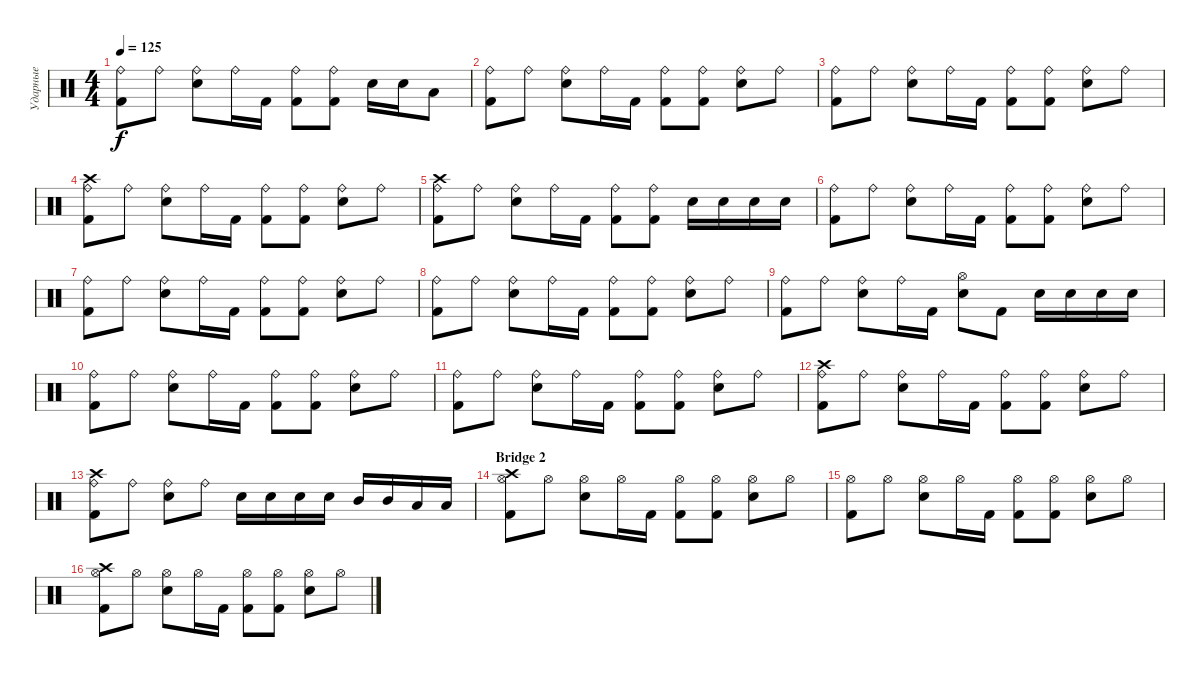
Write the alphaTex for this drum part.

\track ("Ударные" "Ударные") {instrument percussion}
\staff {score}
\articulation defaults
\ts (4 4)
\tempo 125
\clef neutral
\ks c
("Ride (bell)" "Kick (hit) 2").8{dy f} "Ride (bell)".8 ("Ride (bell)" "Snare (hit) 2").8 "Ride (bell)".16 "Kick (hit) 2".16 ("Ride (bell)" "Kick (hit) 2").8 ("Ride (bell)" "Kick (hit) 2").8 "Snare (hit) 2".16 "Snare (hit) 2".16 "Low Tom (hit)".8 |
("Ride (bell)" "Kick (hit) 2").8 "Ride (bell)".8 ("Ride (bell)" "Snare (hit) 2").8 "Ride (bell)".16 "Kick (hit) 2".16 ("Ride (bell)" "Kick (hit) 2").8 ("Ride (bell)" "Kick (hit) 2").8 ("Ride (bell)" "Snare (hit) 2").8 "Ride (bell)".8 |
("Ride (bell)" "Kick (hit) 2").8 "Ride (bell)".8 ("Ride (bell)" "Snare (hit) 2").8 "Ride (bell)".16 "Kick (hit) 2".16 ("Ride (bell)" "Kick (hit) 2").8 ("Ride (bell)" "Kick (hit) 2").8 ("Ride (bell)" "Snare (hit) 2").8 "Ride (bell)".8 |
("Ride (bell)" "Crash high (hit)" "Kick (hit) 2").8 "Ride (bell)".8 ("Ride (bell)" "Snare (hit) 2").8 "Ride (bell)".16 "Kick (hit) 2".16 ("Ride (bell)" "Kick (hit) 2").8 ("Ride (bell)" "Kick (hit) 2").8 ("Ride (bell)" "Snare (hit) 2").8 "Ride (bell)".8 |
("Ride (bell)" "Crash high (hit)" "Kick (hit) 2").8 "Ride (bell)".8 ("Ride (bell)" "Snare (hit) 2").8 "Ride (bell)".16 "Kick (hit) 2".16 ("Ride (bell)" "Kick (hit) 2").8 ("Ride (bell)" "Kick (hit) 2").8 "Snare (hit) 2".16 "Snare (hit) 2".16 "Snare (hit) 2".16 "Snare (hit) 2".16 |
("Ride (bell)" "Kick (hit) 2").8 "Ride (bell)".8 ("Ride (bell)" "Snare (hit) 2").8 "Ride (bell)".16 "Kick (hit) 2".16 ("Ride (bell)" "Kick (hit) 2").8 ("Ride (bell)" "Kick (hit) 2").8 ("Ride (bell)" "Snare (hit) 2").8 "Ride (bell)".8 |
("Ride (bell)" "Kick (hit) 2").8 "Ride (bell)".8 ("Ride (bell)" "Snare (hit) 2").8 "Ride (bell)".16 "Kick (hit) 2".16 ("Ride (bell)" "Kick (hit) 2").8 ("Ride (bell)" "Kick (hit) 2").8 ("Ride (bell)" "Snare (hit) 2").8 "Ride (bell)".8 |
("Ride (bell)" "Kick (hit) 2").8 "Ride (bell)".8 ("Ride (bell)" "Snare (hit) 2").8 "Ride (bell)".16 "Kick (hit) 2".16 ("Ride (bell)" "Kick (hit) 2").8 ("Ride (bell)" "Kick (hit) 2").8 ("Ride (bell)" "Snare (hit) 2").8 "Ride (bell)".8 |
("Ride (bell)" "Kick (hit) 2").8 "Ride (bell)".8 ("Ride (bell)" "Snare (hit) 2").8 "Ride (bell)".16 "Kick (hit) 2".16 ("Hi-Hat (open)" "Snare (hit) 2").8 "Kick (hit) 2".8 "Snare (hit) 2".16 "Snare (hit) 2".16 "Snare (hit) 2".16 "Snare (hit) 2".16 |
("Ride (bell)" "Kick (hit) 2").8 "Ride (bell)".8 ("Ride (bell)" "Snare (hit) 2").8 "Ride (bell)".16 "Kick (hit) 2".16 ("Ride (bell)" "Kick (hit) 2").8 ("Ride (bell)" "Kick (hit) 2").8 ("Ride (bell)" "Snare (hit) 2").8 "Ride (bell)".8 |
("Ride (bell)" "Kick (hit) 2").8 "Ride (bell)".8 ("Ride (bell)" "Snare (hit) 2").8 "Ride (bell)".16 "Kick (hit) 2".16 ("Ride (bell)" "Kick (hit) 2").8 ("Ride (bell)" "Kick (hit) 2").8 ("Ride (bell)" "Snare (hit) 2").8 "Ride (bell)".8 |
("Ride (bell)" "Crash high (hit)" "Kick (hit) 2").8 "Ride (bell)".8 ("Ride (bell)" "Snare (hit) 2").8 "Ride (bell)".16 "Kick (hit) 2".16 ("Ride (bell)" "Kick (hit) 2").8 ("Ride (bell)" "Kick (hit) 2").8 ("Ride (bell)" "Snare (hit) 2").8 "Ride (bell)".8 |
("Ride (bell)" "Crash high (hit)" "Kick (hit) 2").8 "Ride (bell)".8 ("Ride (bell)" "Snare (hit) 2").8 "Ride (bell)".8 "Snare (hit) 2".16 "Snare (hit) 2".16 "Snare (hit) 2".16 "Snare (hit) 2".16 "Mid Tom (hit)".16 "Mid Tom (hit)".16 "Low Tom (hit)".16 "Low Tom (hit)".16 |
\section ("" "Bridge 2")
("Hi-Hat (open)" "Crash high (hit)" "Kick (hit) 2").8 "Hi-Hat (open)".8 ("Hi-Hat (open)" "Snare (hit) 2").8 "Hi-Hat (open)".16 "Kick (hit) 2".16 ("Hi-Hat (open)" "Kick (hit) 2").8 ("Hi-Hat (open)" "Kick (hit) 2").8 ("Hi-Hat (open)" "Snare (hit) 2").8 "Hi-Hat (open)".8 |
("Hi-Hat (open)" "Kick (hit) 2").8 "Hi-Hat (open)".8 ("Hi-Hat (open)" "Snare (hit) 2").8 "Hi-Hat (open)".16 "Kick (hit) 2".16 ("Hi-Hat (open)" "Kick (hit) 2").8 ("Hi-Hat (open)" "Kick (hit) 2").8 ("Hi-Hat (open)" "Snare (hit) 2").8 "Hi-Hat (open)".8 |
("Hi-Hat (open)" "Crash high (hit)" "Kick (hit) 2").8 "Hi-Hat (open)".8 ("Hi-Hat (open)" "Snare (hit) 2").8 "Hi-Hat (open)".16 "Kick (hit) 2".16 ("Hi-Hat (open)" "Kick (hit) 2").8 ("Hi-Hat (open)" "Kick (hit) 2").8 ("Hi-Hat (open)" "Snare (hit) 2").8 "Hi-Hat (open)".8
